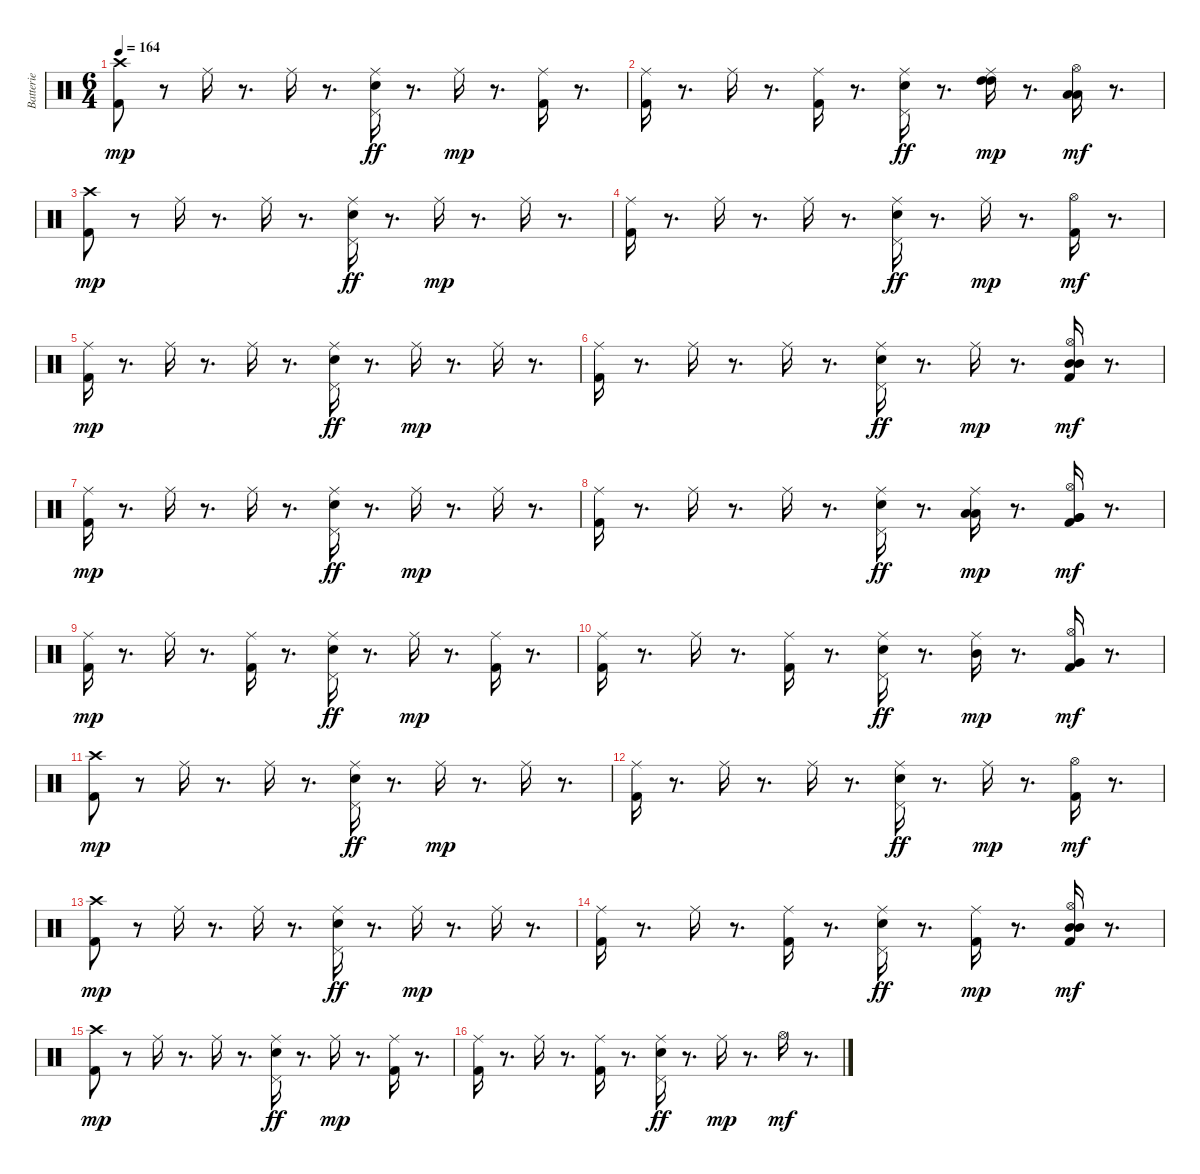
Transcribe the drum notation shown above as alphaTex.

\track ("Batterie" "Batterie") {instrument percussion}
\staff {score}
\articulation defaults
\ts (6 4)
\tempo 164
\clef neutral
\ks c
("Kick (hit) 2" "Crash high (hit)").8{dy mp} r.8 "Ride (middle)".16 r.8{d} "Ride (middle)".16 r.8{d} ("Ride (middle)" "Pedal Hi-Hat (hit)" "Electric Snare (hit)").16{dy ff} r.8{d} "Ride (middle)".16{dy mp} r.8{d} ("Kick (hit) 2" "Ride (middle)").16 r.8{d} |
("Kick (hit) 2" "Ride (middle)").16 r.8{d} "Ride (middle)".16 r.8{d} ("Kick (hit) 2" "Ride (middle)").16 r.8{d} ("Ride (middle)" "Pedal Hi-Hat (hit)" "Electric Snare (hit)").16{dy ff} r.8{d} ("High Tom (hit)" "Ride (middle)" "High Tom (hit)").16{dy mp} r.8{d} ("Low Tom (hit)" "Hi-Hat (open)" "Low Tom (hit)").16{dy mf} r.8{d} |
("Kick (hit) 2" "Crash high (hit)").8{dy mp} r.8 "Ride (middle)".16 r.8{d} "Ride (middle)".16 r.8{d} ("Ride (middle)" "Pedal Hi-Hat (hit)" "Electric Snare (hit)").16{dy ff} r.8{d} "Ride (middle)".16{dy mp} r.8{d} "Ride (middle)".16 r.8{d} |
("Kick (hit) 2" "Ride (middle)").16 r.8{d} "Ride (middle)".16 r.8{d} "Ride (middle)".16 r.8{d} ("Ride (middle)" "Pedal Hi-Hat (hit)" "Electric Snare (hit)").16{dy ff} r.8{d} "Ride (middle)".16{dy mp} r.8{d} ("Kick (hit) 2" "Hi-Hat (open)").16{dy mf} r.8{d} |
("Kick (hit) 2" "Ride (middle)").16{dy mp} r.8{d} "Ride (middle)".16 r.8{d} "Ride (middle)".16 r.8{d} ("Ride (middle)" "Pedal Hi-Hat (hit)" "Electric Snare (hit)").16{dy ff} r.8{d} "Ride (middle)".16{dy mp} r.8{d} "Ride (middle)".16 r.8{d} |
("Kick (hit) 2" "Ride (middle)").16 r.8{d} "Ride (middle)".16 r.8{d} "Ride (middle)".16 r.8{d} ("Ride (middle)" "Pedal Hi-Hat (hit)" "Electric Snare (hit)").16{dy ff} r.8{d} "Ride (middle)".16{dy mp} r.8{d} ("Mid Tom (hit)" "Kick (hit) 2" "Hi-Hat (open)" "Mid Tom (hit)").16{dy mf} r.8{d} |
("Kick (hit) 2" "Ride (middle)").16{dy mp} r.8{d} "Ride (middle)".16 r.8{d} "Ride (middle)".16 r.8{d} ("Ride (middle)" "Pedal Hi-Hat (hit)" "Electric Snare (hit)").16{dy ff} r.8{d} "Ride (middle)".16{dy mp} r.8{d} "Ride (middle)".16 r.8{d} |
("Kick (hit) 2" "Ride (middle)").16 r.8{d} "Ride (middle)".16 r.8{d} "Ride (middle)".16 r.8{d} ("Ride (middle)" "Pedal Hi-Hat (hit)" "Electric Snare (hit)").16{dy ff} r.8{d} ("Low Tom (hit)" "Ride (middle)" "Low Tom (hit)").16{dy mp} r.8{d} ("Very Low Tom (hit)" "Kick (hit) 2" "Hi-Hat (open)" "Very Low Tom (hit)").16{dy mf} r.8{d} |
("Kick (hit) 2" "Ride (middle)").16{dy mp} r.8{d} "Ride (middle)".16 r.8{d} ("Kick (hit) 2" "Ride (middle)").16 r.8{d} ("Ride (middle)" "Pedal Hi-Hat (hit)" "Electric Snare (hit)").16{dy ff} r.8{d} "Ride (middle)".16{dy mp} r.8{d} ("Kick (hit) 2" "Ride (middle)").16 r.8{d} |
("Kick (hit) 2" "Ride (middle)").16 r.8{d} "Ride (middle)".16 r.8{d} ("Kick (hit) 2" "Ride (middle)").16 r.8{d} ("Ride (middle)" "Pedal Hi-Hat (hit)" "Electric Snare (hit)").16{dy ff} r.8{d} ("Ride (middle)" "Mid Tom (hit)").16{dy mp} r.8{d} ("Kick (hit) 2" "Hi-Hat (open)" "Very Low Tom (hit)").16{dy mf} r.8{d} |
("Kick (hit) 2" "Crash high (hit)").8{dy mp} r.8 "Ride (middle)".16 r.8{d} "Ride (middle)".16 r.8{d} ("Ride (middle)" "Pedal Hi-Hat (hit)" "Electric Snare (hit)").16{dy ff} r.8{d} "Ride (middle)".16{dy mp} r.8{d} "Ride (middle)".16 r.8{d} |
("Kick (hit) 2" "Ride (middle)").16 r.8{d} "Ride (middle)".16 r.8{d} "Ride (middle)".16 r.8{d} ("Ride (middle)" "Pedal Hi-Hat (hit)" "Electric Snare (hit)").16{dy ff} r.8{d} "Ride (middle)".16{dy mp} r.8{d} ("Kick (hit) 2" "Hi-Hat (open)").16{dy mf} r.8{d} |
("Kick (hit) 2" "Crash high (hit)").8{dy mp} r.8 "Ride (middle)".16 r.8{d} "Ride (middle)".16 r.8{d} ("Ride (middle)" "Pedal Hi-Hat (hit)" "Electric Snare (hit)").16{dy ff} r.8{d} "Ride (middle)".16{dy mp} r.8{d} "Ride (middle)".16 r.8{d} |
("Kick (hit) 2" "Ride (middle)").16 r.8{d} "Ride (middle)".16 r.8{d} ("Kick (hit) 2" "Ride (middle)").16 r.8{d} ("Ride (middle)" "Pedal Hi-Hat (hit)" "Electric Snare (hit)").16{dy ff} r.8{d} ("Kick (hit) 2" "Ride (middle)").16{dy mp} r.8{d} ("Mid Tom (hit)" "Kick (hit) 2" "Hi-Hat (open)" "Mid Tom (hit)").16{dy mf} r.8{d} |
("Kick (hit) 2" "Crash high (hit)").8{dy mp} r.8 "Ride (middle)".16 r.8{d} "Ride (middle)".16 r.8{d} ("Ride (middle)" "Pedal Hi-Hat (hit)" "Electric Snare (hit)").16{dy ff} r.8{d} "Ride (middle)".16{dy mp} r.8{d} ("Kick (hit) 2" "Ride (middle)").16 r.8{d} |
("Kick (hit) 2" "Ride (middle)").16 r.8{d} "Ride (middle)".16 r.8{d} ("Kick (hit) 2" "Ride (middle)").16 r.8{d} ("Ride (middle)" "Pedal Hi-Hat (hit)" "Electric Snare (hit)").16{dy ff} r.8{d} "Ride (middle)".16{dy mp} r.8{d} "Hi-Hat (open)".16{dy mf} r.8{d}
